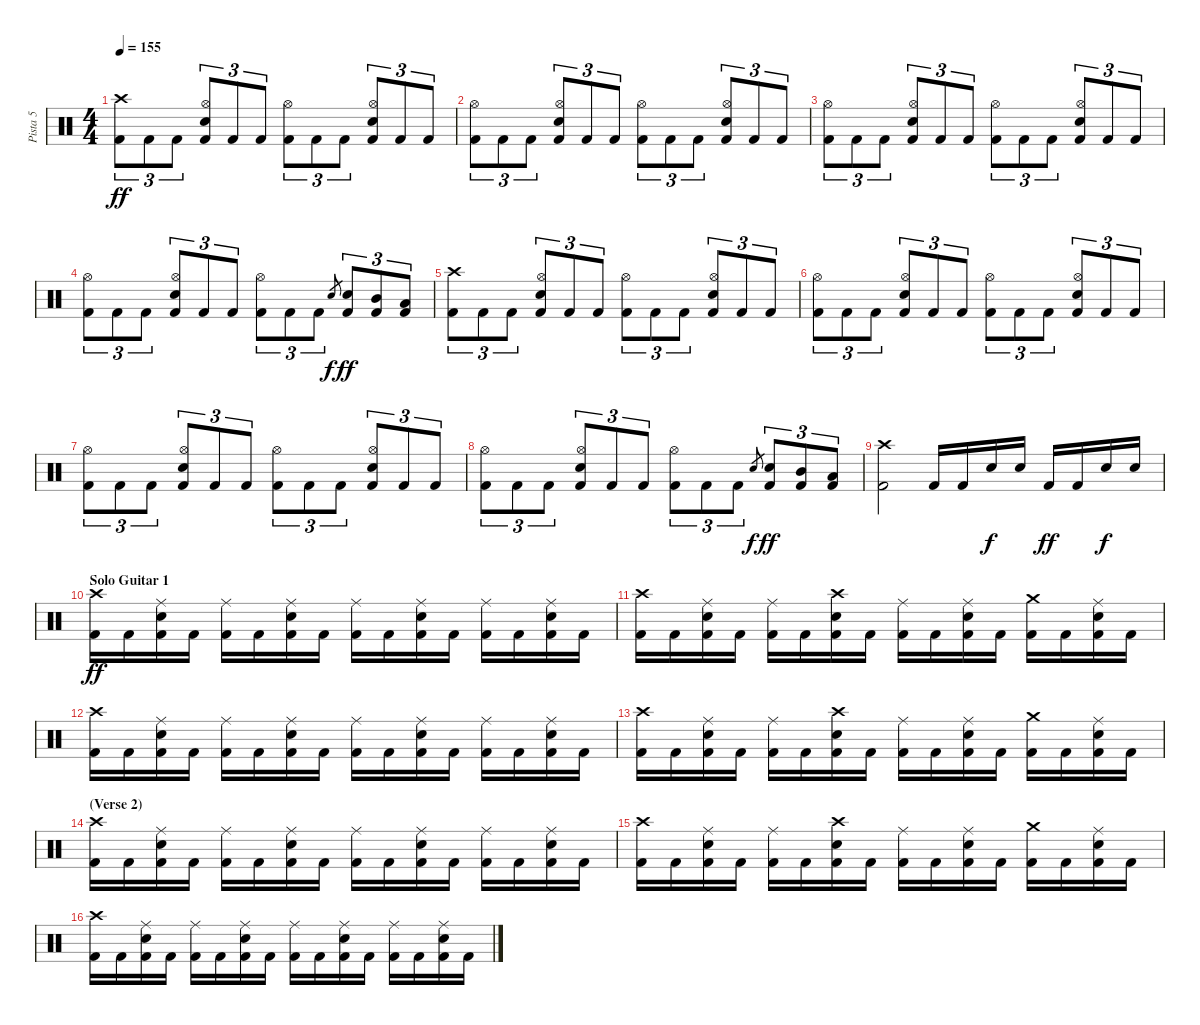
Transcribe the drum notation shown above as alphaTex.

\track ("Pista 5" "Pista 5") {instrument percussion}
\staff {score}
\articulation defaults
\ts (4 4)
\tempo 155
\clef neutral
\ks c
("Crash high (hit)" "Kick (hit) 2").8{tu (3 2) dy ff} "Kick (hit) 2".8{tu (3 2)} "Kick (hit) 2".8{tu (3 2)} ("Hi-Hat (open)" "Electric Snare (hit)" "Kick (hit) 2").8{tu (3 2)} "Kick (hit) 2".8{tu (3 2)} "Kick (hit) 2".8{tu (3 2)} ("Hi-Hat (open)" "Kick (hit) 2").8{tu (3 2)} "Kick (hit) 2".8{tu (3 2)} "Kick (hit) 2".8{tu (3 2)} ("Hi-Hat (open)" "Electric Snare (hit)" "Kick (hit) 2").8{tu (3 2)} "Kick (hit) 2".8{tu (3 2)} "Kick (hit) 2".8{tu (3 2)} |
("Hi-Hat (open)" "Kick (hit) 2").8{tu (3 2)} "Kick (hit) 2".8{tu (3 2)} "Kick (hit) 2".8{tu (3 2)} ("Hi-Hat (open)" "Electric Snare (hit)" "Kick (hit) 2").8{tu (3 2)} "Kick (hit) 2".8{tu (3 2)} "Kick (hit) 2".8{tu (3 2)} ("Hi-Hat (open)" "Kick (hit) 2").8{tu (3 2)} "Kick (hit) 2".8{tu (3 2)} "Kick (hit) 2".8{tu (3 2)} ("Hi-Hat (open)" "Electric Snare (hit)" "Kick (hit) 2").8{tu (3 2)} "Kick (hit) 2".8{tu (3 2)} "Kick (hit) 2".8{tu (3 2)} |
("Hi-Hat (open)" "Kick (hit) 2").8{tu (3 2)} "Kick (hit) 2".8{tu (3 2)} "Kick (hit) 2".8{tu (3 2)} ("Hi-Hat (open)" "Electric Snare (hit)" "Kick (hit) 2").8{tu (3 2)} "Kick (hit) 2".8{tu (3 2)} "Kick (hit) 2".8{tu (3 2)} ("Hi-Hat (open)" "Kick (hit) 2").8{tu (3 2)} "Kick (hit) 2".8{tu (3 2)} "Kick (hit) 2".8{tu (3 2)} ("Hi-Hat (open)" "Electric Snare (hit)" "Kick (hit) 2").8{tu (3 2)} "Kick (hit) 2".8{tu (3 2)} "Kick (hit) 2".8{tu (3 2)} |
("Hi-Hat (open)" "Kick (hit) 2").8{tu (3 2)} "Kick (hit) 2".8{tu (3 2)} "Kick (hit) 2".8{tu (3 2)} ("Hi-Hat (open)" "Electric Snare (hit)" "Kick (hit) 2").8{tu (3 2)} "Kick (hit) 2".8{tu (3 2)} "Kick (hit) 2".8{tu (3 2)} ("Hi-Hat (open)" "Kick (hit) 2").8{tu (3 2)} "Kick (hit) 2".8{tu (3 2)} "Kick (hit) 2".8{tu (3 2)} "Electric Snare (hit)".8{gr dy f} ("Electric Snare (hit)" "Kick (hit) 2").8{tu (3 2) dy ff} ("Mid Tom (hit)" "Kick (hit) 2").8{tu (3 2)} ("Low Tom (hit)" "Kick (hit) 2").8{tu (3 2)} |
("Crash high (hit)" "Kick (hit) 2").8{tu (3 2)} "Kick (hit) 2".8{tu (3 2)} "Kick (hit) 2".8{tu (3 2)} ("Hi-Hat (open)" "Electric Snare (hit)" "Kick (hit) 2").8{tu (3 2)} "Kick (hit) 2".8{tu (3 2)} "Kick (hit) 2".8{tu (3 2)} ("Hi-Hat (open)" "Kick (hit) 2").8{tu (3 2)} "Kick (hit) 2".8{tu (3 2)} "Kick (hit) 2".8{tu (3 2)} ("Hi-Hat (open)" "Electric Snare (hit)" "Kick (hit) 2").8{tu (3 2)} "Kick (hit) 2".8{tu (3 2)} "Kick (hit) 2".8{tu (3 2)} |
("Hi-Hat (open)" "Kick (hit) 2").8{tu (3 2)} "Kick (hit) 2".8{tu (3 2)} "Kick (hit) 2".8{tu (3 2)} ("Hi-Hat (open)" "Electric Snare (hit)" "Kick (hit) 2").8{tu (3 2)} "Kick (hit) 2".8{tu (3 2)} "Kick (hit) 2".8{tu (3 2)} ("Hi-Hat (open)" "Kick (hit) 2").8{tu (3 2)} "Kick (hit) 2".8{tu (3 2)} "Kick (hit) 2".8{tu (3 2)} ("Hi-Hat (open)" "Electric Snare (hit)" "Kick (hit) 2").8{tu (3 2)} "Kick (hit) 2".8{tu (3 2)} "Kick (hit) 2".8{tu (3 2)} |
("Hi-Hat (open)" "Kick (hit) 2").8{tu (3 2)} "Kick (hit) 2".8{tu (3 2)} "Kick (hit) 2".8{tu (3 2)} ("Hi-Hat (open)" "Electric Snare (hit)" "Kick (hit) 2").8{tu (3 2)} "Kick (hit) 2".8{tu (3 2)} "Kick (hit) 2".8{tu (3 2)} ("Hi-Hat (open)" "Kick (hit) 2").8{tu (3 2)} "Kick (hit) 2".8{tu (3 2)} "Kick (hit) 2".8{tu (3 2)} ("Hi-Hat (open)" "Electric Snare (hit)" "Kick (hit) 2").8{tu (3 2)} "Kick (hit) 2".8{tu (3 2)} "Kick (hit) 2".8{tu (3 2)} |
("Hi-Hat (open)" "Kick (hit) 2").8{tu (3 2)} "Kick (hit) 2".8{tu (3 2)} "Kick (hit) 2".8{tu (3 2)} ("Hi-Hat (open)" "Electric Snare (hit)" "Kick (hit) 2").8{tu (3 2)} "Kick (hit) 2".8{tu (3 2)} "Kick (hit) 2".8{tu (3 2)} ("Hi-Hat (open)" "Kick (hit) 2").8{tu (3 2)} "Kick (hit) 2".8{tu (3 2)} "Kick (hit) 2".8{tu (3 2)} "Electric Snare (hit)".8{gr dy f} ("Electric Snare (hit)" "Kick (hit) 2").8{tu (3 2) dy ff} ("Mid Tom (hit)" "Kick (hit) 2").8{tu (3 2)} ("Low Tom (hit)" "Kick (hit) 2").8{tu (3 2)} |
("Crash high (hit)" "Kick (hit) 2").2 "Kick (hit) 2".16 "Kick (hit) 2".16 "Electric Snare (hit)".16{dy f} "Electric Snare (hit)".16 "Kick (hit) 2".16{dy ff} "Kick (hit) 2".16 "Electric Snare (hit)".16{dy f} "Electric Snare (hit)".16 |
\section ("" "Solo Guitar 1")
("Crash high (hit)" "Kick (hit) 2").16{dy ff} "Kick (hit) 2".16 ("Ride (middle)" "Electric Snare (hit)" "Kick (hit) 2").16 "Kick (hit) 2".16 ("Ride (middle)" "Kick (hit) 2").16 "Kick (hit) 2".16 ("Ride (middle)" "Electric Snare (hit)" "Kick (hit) 2").16 "Kick (hit) 2".16 ("Ride (middle)" "Kick (hit) 2").16 "Kick (hit) 2".16 ("Ride (middle)" "Electric Snare (hit)" "Kick (hit) 2").16 "Kick (hit) 2".16 ("Ride (middle)" "Kick (hit) 2").16 "Kick (hit) 2".16 ("Ride (middle)" "Electric Snare (hit)" "Kick (hit) 2").16 "Kick (hit) 2".16 |
("Crash high (hit)" "Kick (hit) 2").16 "Kick (hit) 2".16 ("Ride (middle)" "Electric Snare (hit)" "Kick (hit) 2").16 "Kick (hit) 2".16 ("Ride (middle)" "Kick (hit) 2").16 "Kick (hit) 2".16 ("Crash high (hit)" "Electric Snare (hit)" "Kick (hit) 2").16 "Kick (hit) 2".16 ("Ride (middle)" "Kick (hit) 2").16 "Kick (hit) 2".16 ("Ride (middle)" "Electric Snare (hit)" "Kick (hit) 2").16 "Kick (hit) 2".16 ("Crash medium (hit)" "Kick (hit) 2").16 "Kick (hit) 2".16 ("Ride (middle)" "Electric Snare (hit)" "Kick (hit) 2").16 "Kick (hit) 2".16 |
("Crash high (hit)" "Kick (hit) 2").16 "Kick (hit) 2".16 ("Ride (middle)" "Electric Snare (hit)" "Kick (hit) 2").16 "Kick (hit) 2".16 ("Ride (middle)" "Kick (hit) 2").16 "Kick (hit) 2".16 ("Ride (middle)" "Electric Snare (hit)" "Kick (hit) 2").16 "Kick (hit) 2".16 ("Ride (middle)" "Kick (hit) 2").16 "Kick (hit) 2".16 ("Ride (middle)" "Electric Snare (hit)" "Kick (hit) 2").16 "Kick (hit) 2".16 ("Ride (middle)" "Kick (hit) 2").16 "Kick (hit) 2".16 ("Ride (middle)" "Electric Snare (hit)" "Kick (hit) 2").16 "Kick (hit) 2".16 |
("Crash high (hit)" "Kick (hit) 2").16 "Kick (hit) 2".16 ("Ride (middle)" "Electric Snare (hit)" "Kick (hit) 2").16 "Kick (hit) 2".16 ("Ride (middle)" "Kick (hit) 2").16 "Kick (hit) 2".16 ("Crash high (hit)" "Electric Snare (hit)" "Kick (hit) 2").16 "Kick (hit) 2".16 ("Ride (middle)" "Kick (hit) 2").16 "Kick (hit) 2".16 ("Ride (middle)" "Electric Snare (hit)" "Kick (hit) 2").16 "Kick (hit) 2".16 ("Crash medium (hit)" "Kick (hit) 2").16 "Kick (hit) 2".16 ("Ride (middle)" "Electric Snare (hit)" "Kick (hit) 2").16 "Kick (hit) 2".16 |
\section ("" "(Verse 2)")
("Crash high (hit)" "Kick (hit) 2").16 "Kick (hit) 2".16 ("Ride (middle)" "Electric Snare (hit)" "Kick (hit) 2").16 "Kick (hit) 2".16 ("Ride (middle)" "Kick (hit) 2").16 "Kick (hit) 2".16 ("Ride (middle)" "Electric Snare (hit)" "Kick (hit) 2").16 "Kick (hit) 2".16 ("Ride (middle)" "Kick (hit) 2").16 "Kick (hit) 2".16 ("Ride (middle)" "Electric Snare (hit)" "Kick (hit) 2").16 "Kick (hit) 2".16 ("Ride (middle)" "Kick (hit) 2").16 "Kick (hit) 2".16 ("Ride (middle)" "Electric Snare (hit)" "Kick (hit) 2").16 "Kick (hit) 2".16 |
("Crash high (hit)" "Kick (hit) 2").16 "Kick (hit) 2".16 ("Ride (middle)" "Electric Snare (hit)" "Kick (hit) 2").16 "Kick (hit) 2".16 ("Ride (middle)" "Kick (hit) 2").16 "Kick (hit) 2".16 ("Crash high (hit)" "Electric Snare (hit)" "Kick (hit) 2").16 "Kick (hit) 2".16 ("Ride (middle)" "Kick (hit) 2").16 "Kick (hit) 2".16 ("Ride (middle)" "Electric Snare (hit)" "Kick (hit) 2").16 "Kick (hit) 2".16 ("Crash medium (hit)" "Kick (hit) 2").16 "Kick (hit) 2".16 ("Ride (middle)" "Electric Snare (hit)" "Kick (hit) 2").16 "Kick (hit) 2".16 |
("Crash high (hit)" "Kick (hit) 2").16 "Kick (hit) 2".16 ("Ride (middle)" "Electric Snare (hit)" "Kick (hit) 2").16 "Kick (hit) 2".16 ("Ride (middle)" "Kick (hit) 2").16 "Kick (hit) 2".16 ("Ride (middle)" "Electric Snare (hit)" "Kick (hit) 2").16 "Kick (hit) 2".16 ("Ride (middle)" "Kick (hit) 2").16 "Kick (hit) 2".16 ("Ride (middle)" "Electric Snare (hit)" "Kick (hit) 2").16 "Kick (hit) 2".16 ("Ride (middle)" "Kick (hit) 2").16 "Kick (hit) 2".16 ("Ride (middle)" "Electric Snare (hit)" "Kick (hit) 2").16 "Kick (hit) 2".16
